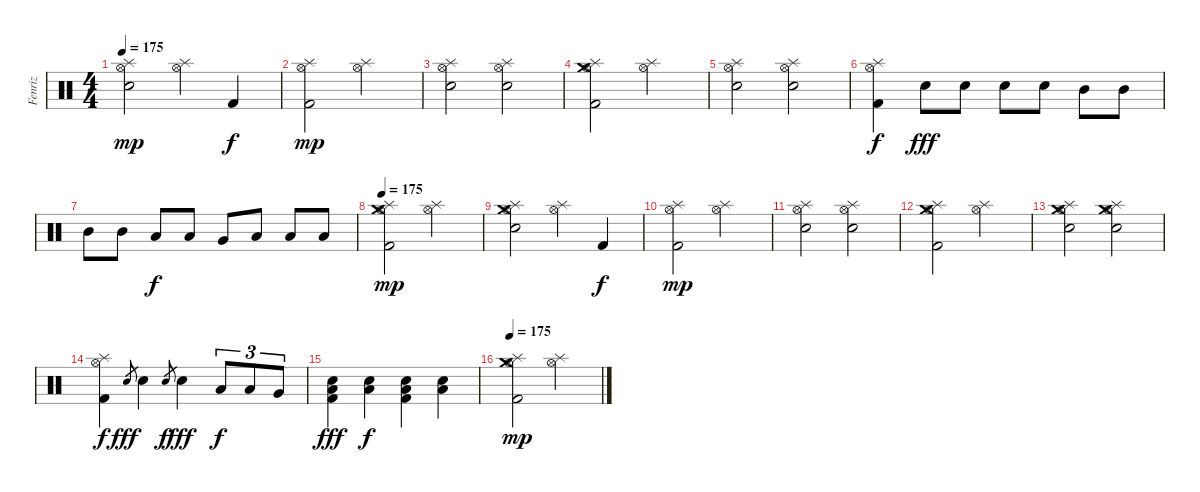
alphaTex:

\track ("Fenriz" "Fenriz") {instrument percussion}
\staff {score}
\articulation defaults
\ts (4 4)
\tempo 175
\clef neutral
\ks c
("Electric Snare (hit)" "Splash (hit)" "Hi-Hat (open)").2{dy mp} ("Splash (hit)" "Hi-Hat (open)").4 "Kick (hit) 2".4{dy f} |
("Kick (hit) 2" "Splash (hit)" "Hi-Hat (open)").2{dy mp} ("Splash (hit)" "Hi-Hat (open)").2 |
("Electric Snare (hit)" "Splash (hit)" "Hi-Hat (open)").2 ("Electric Snare (hit)" "Splash (hit)" "Hi-Hat (open)").2 |
("Kick (hit) 2" "Crash medium (hit)" "Splash (hit)" "Hi-Hat (open)").2 ("Splash (hit)" "Hi-Hat (open)").2 |
("Electric Snare (hit)" "Splash (hit)" "Hi-Hat (open)").2 ("Electric Snare (hit)" "Splash (hit)" "Hi-Hat (open)").2 |
("Kick (hit) 2" "Splash (hit)" "Hi-Hat (open)").4{dy f} "Electric Snare (hit)".8{dy fff} "Electric Snare (hit)".8 "Electric Snare (hit)".8 "Electric Snare (hit)".8 "Mid Tom (hit)".8 "Mid Tom (hit)".8 |
"Mid Tom (hit)".8 "Mid Tom (hit)".8 "Low Tom (hit)".8{dy f} "Low Tom (hit)".8 "Very Low Tom (hit)".8 "Low Floor Tom (hit)".8 "Low Floor Tom (hit)".8 "Low Floor Tom (hit)".8 |
\tempo 175
("Kick (hit) 2" "Crash medium (hit)" "Splash (hit)" "Hi-Hat (open)").2{dy mp} ("Splash (hit)" "Hi-Hat (open)").2 |
("Crash medium (hit)" "Electric Snare (hit)" "Splash (hit)" "Hi-Hat (open)").2 ("Splash (hit)" "Hi-Hat (open)").4 "Kick (hit) 2".4{dy f} |
("Kick (hit) 2" "Splash (hit)" "Hi-Hat (open)").2{dy mp} ("Splash (hit)" "Hi-Hat (open)").2 |
("Electric Snare (hit)" "Splash (hit)" "Hi-Hat (open)").2 ("Electric Snare (hit)" "Splash (hit)" "Hi-Hat (open)").2 |
("Kick (hit) 2" "Crash medium (hit)" "Splash (hit)" "Hi-Hat (open)").2 ("Splash (hit)" "Hi-Hat (open)").2 |
("Crash medium (hit)" "Electric Snare (hit)" "Splash (hit)" "Hi-Hat (open)").2 ("Crash medium (hit)" "Electric Snare (hit)" "Splash (hit)" "Hi-Hat (open)").2 |
("Kick (hit) 2" "Splash (hit)" "Hi-Hat (open)").4{dy f} "Electric Snare (hit)".8{gr dy fff} "Electric Snare (hit)".4 "Electric Snare (hit)".8{gr dy f} "Electric Snare (hit)".4{dy fff} "Low Tom (hit)".8{tu (3 2) dy f} "Low Tom (hit)".8{tu (3 2)} "Very Low Tom (hit)".8{tu (3 2)} |
("Kick (hit) 2" "Low Tom (hit)" "Electric Snare (hit)").4{dy fff} ("Low Tom (hit)" "Electric Snare (hit)").4{dy f} ("Kick (hit) 2" "Low Tom (hit)" "Electric Snare (hit)").4 ("Low Tom (hit)" "Electric Snare (hit)").4 |
\tempo 175
("Kick (hit) 2" "Crash medium (hit)" "Splash (hit)" "Hi-Hat (open)").2{dy mp} ("Splash (hit)" "Hi-Hat (open)").2
